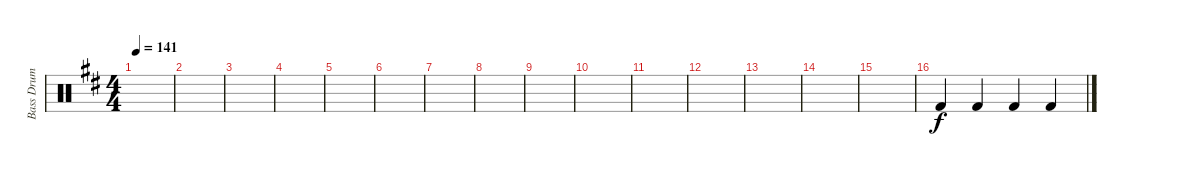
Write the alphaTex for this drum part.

\track ("Bass Drum" "Bass Drum") {instrument percussion}
\staff {score}
\articulation defaults
\ts (4 4)
\tempo 141
\clef neutral
\ks d
|
|
|
|
|
|
|
|
|
|
|
|
|
|
|
"Kick (hit) 2".4 "Kick (hit) 2".4 "Kick (hit) 2".4 "Kick (hit) 2".4
